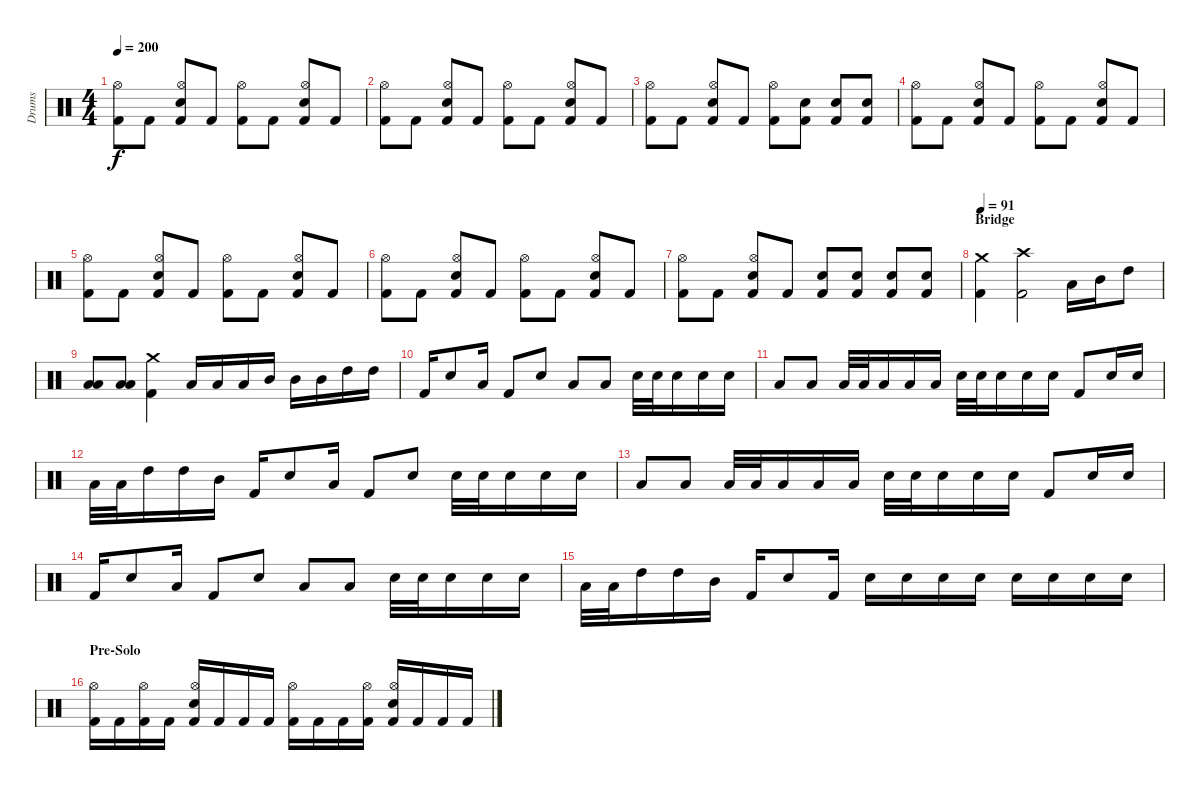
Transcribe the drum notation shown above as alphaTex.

\track ("Drums" "Drums") {instrument percussion}
\staff {score}
\articulation defaults
\ts (4 4)
\tempo 200
\clef neutral
\ks c
("Kick (hit) 2" "Hi-Hat (open)").8{dy f} "Kick (hit) 2".8 ("Kick (hit) 2" "Snare (hit) 2" "Hi-Hat (open)").8 "Kick (hit) 2".8 ("Kick (hit) 2" "Hi-Hat (open)").8 "Kick (hit) 2".8 ("Kick (hit) 2" "Snare (hit) 2" "Hi-Hat (open)").8 "Kick (hit) 2".8 |
("Kick (hit) 2" "Hi-Hat (open)").8 "Kick (hit) 2".8 ("Kick (hit) 2" "Snare (hit) 2" "Hi-Hat (open)").8 "Kick (hit) 2".8 ("Kick (hit) 2" "Hi-Hat (open)").8 "Kick (hit) 2".8 ("Kick (hit) 2" "Snare (hit) 2" "Hi-Hat (open)").8 "Kick (hit) 2".8 |
("Kick (hit) 2" "Hi-Hat (open)").8 "Kick (hit) 2".8 ("Kick (hit) 2" "Snare (hit) 2" "Hi-Hat (open)").8 "Kick (hit) 2".8 ("Kick (hit) 2" "Hi-Hat (open)").8 ("Kick (hit) 2" "Snare (hit) 2").8 ("Kick (hit) 2" "Snare (hit) 2").8 ("Kick (hit) 2" "Snare (hit) 2").8 |
("Kick (hit) 2" "Hi-Hat (open)").8 "Kick (hit) 2".8 ("Kick (hit) 2" "Snare (hit) 2" "Hi-Hat (open)").8 "Kick (hit) 2".8 ("Kick (hit) 2" "Hi-Hat (open)").8 "Kick (hit) 2".8 ("Kick (hit) 2" "Snare (hit) 2" "Hi-Hat (open)").8 "Kick (hit) 2".8 |
("Kick (hit) 2" "Hi-Hat (open)").8 "Kick (hit) 2".8 ("Kick (hit) 2" "Snare (hit) 2" "Hi-Hat (open)").8 "Kick (hit) 2".8 ("Kick (hit) 2" "Hi-Hat (open)").8 "Kick (hit) 2".8 ("Kick (hit) 2" "Snare (hit) 2" "Hi-Hat (open)").8 "Kick (hit) 2".8 |
("Kick (hit) 2" "Hi-Hat (open)").8 "Kick (hit) 2".8 ("Kick (hit) 2" "Snare (hit) 2" "Hi-Hat (open)").8 "Kick (hit) 2".8 ("Kick (hit) 2" "Hi-Hat (open)").8 "Kick (hit) 2".8 ("Kick (hit) 2" "Snare (hit) 2" "Hi-Hat (open)").8 "Kick (hit) 2".8 |
("Kick (hit) 2" "Hi-Hat (open)").8 "Kick (hit) 2".8 ("Kick (hit) 2" "Snare (hit) 2" "Hi-Hat (open)").8 "Kick (hit) 2".8 ("Kick (hit) 2" "Snare (hit) 2").8 ("Kick (hit) 2" "Snare (hit) 2").8 ("Kick (hit) 2" "Snare (hit) 2").8 ("Kick (hit) 2" "Snare (hit) 2").8 |
\section ("" "Bridge")
\tempo 91
("Kick (hit) 2" "Crash medium (hit)").4 ("Kick (hit) 2" "Crash high (hit)").2 "Low Tom (hit)".16 "Mid Tom (hit)".16 "High Tom (hit)".8 |
("Low Tom (hit)" "Low Tom (hit)").8 ("Low Tom (hit)" "Low Tom (hit)").8 ("Kick (hit) 2" "Crash medium (hit)").4 "Low Tom (hit)".16 "Low Tom (hit)".16 "Low Tom (hit)".16 "Mid Tom (hit)".16 "Mid Tom (hit)".16 "Mid Tom (hit)".16 "High Tom (hit)".16 "High Tom (hit)".16 |
"Kick (hit) 2".16 "Snare (hit) 2".8 "Low Tom (hit)".16 "Kick (hit) 2".8 "Snare (hit) 2".8 "Low Tom (hit)".8 "Low Tom (hit)".8 "Snare (hit) 2".32 "Snare (hit) 2".32 "Snare (hit) 2".16 "Snare (hit) 2".16 "Snare (hit) 2".16 |
"Low Tom (hit)".8 "Low Tom (hit)".8 "Low Tom (hit)".32 "Low Tom (hit)".32 "Low Tom (hit)".16 "Low Tom (hit)".16 "Low Tom (hit)".16 "Snare (hit) 2".32 "Snare (hit) 2".32 "Snare (hit) 2".16 "Snare (hit) 2".16 "Snare (hit) 2".16 "Kick (hit) 2".8 "Snare (hit) 2".16 "Snare (hit) 2".16 |
"Low Tom (hit)".32 "Low Tom (hit)".32 "High Tom (hit)".16 "High Tom (hit)".16 "Mid Tom (hit)".16 "Kick (hit) 2".16 "Snare (hit) 2".8 "Low Tom (hit)".16 "Kick (hit) 2".8 "Snare (hit) 2".8 "Snare (hit) 2".32 "Snare (hit) 2".32 "Snare (hit) 2".16 "Snare (hit) 2".16 "Snare (hit) 2".16 |
"Low Tom (hit)".8 "Low Tom (hit)".8 "Low Tom (hit)".32 "Low Tom (hit)".32 "Low Tom (hit)".16 "Low Tom (hit)".16 "Low Tom (hit)".16 "Snare (hit) 2".32 "Snare (hit) 2".32 "Snare (hit) 2".16 "Snare (hit) 2".16 "Snare (hit) 2".16 "Kick (hit) 2".8 "Snare (hit) 2".16 "Snare (hit) 2".16 |
"Kick (hit) 2".16 "Snare (hit) 2".8 "Low Tom (hit)".16 "Kick (hit) 2".8 "Snare (hit) 2".8 "Low Tom (hit)".8 "Low Tom (hit)".8 "Snare (hit) 2".32 "Snare (hit) 2".32 "Snare (hit) 2".16 "Snare (hit) 2".16 "Snare (hit) 2".16 |
"Low Tom (hit)".32 "Low Tom (hit)".32 "High Tom (hit)".16 "High Tom (hit)".16 "Mid Tom (hit)".16 "Kick (hit) 2".16 "Snare (hit) 2".8 "Kick (hit) 2".16 "Snare (hit) 2".16 "Snare (hit) 2".16 "Snare (hit) 2".16 "Snare (hit) 2".16 "Snare (hit) 2".16 "Snare (hit) 2".16 "Snare (hit) 2".16 "Snare (hit) 2".16 |
\section ("" "Pre-Solo")
("Kick (hit) 2" "Hi-Hat (open)").16 "Kick (hit) 2".16 ("Kick (hit) 2" "Hi-Hat (open)").16 "Kick (hit) 2".16 ("Kick (hit) 2" "Snare (hit) 2" "Hi-Hat (open)").16 "Kick (hit) 2".16 "Kick (hit) 2".16 "Kick (hit) 2".16 ("Kick (hit) 2" "Hi-Hat (open)").16 "Kick (hit) 2".16 "Kick (hit) 2".16 ("Kick (hit) 2" "Hi-Hat (open)").16 ("Kick (hit) 2" "Snare (hit) 2" "Hi-Hat (open)").16 "Kick (hit) 2".16 "Kick (hit) 2".16 "Kick (hit) 2".16
